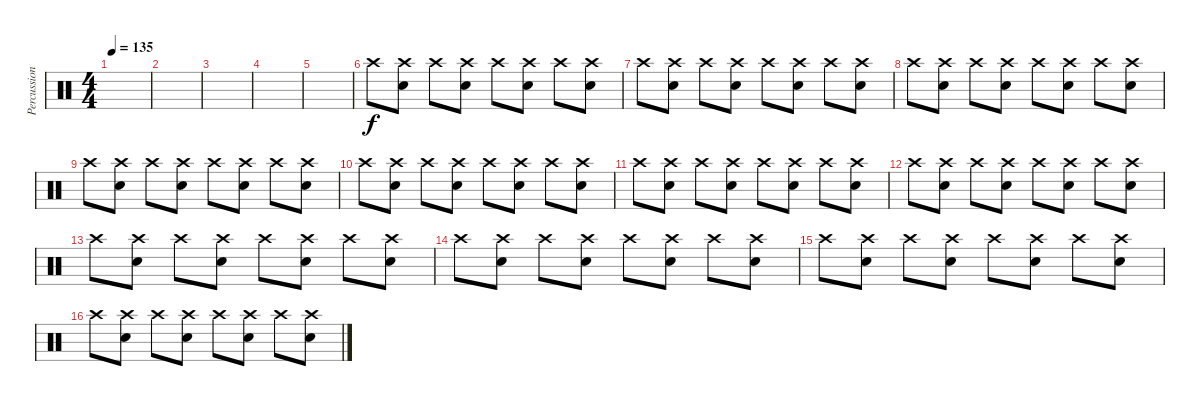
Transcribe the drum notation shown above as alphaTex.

\track ("Percussion" "Percussion") {instrument percussion}
\staff {score}
\articulation defaults
\ts (4 4)
\tempo 135
\clef neutral
\ks c
|
|
|
|
|
"Crash high (hit)".8 ("Crash high (hit)" "Electric Snare (hit)").8 "Crash high (hit)".8 ("Crash high (hit)" "Electric Snare (hit)").8 "Crash high (hit)".8 ("Crash high (hit)" "Electric Snare (hit)").8 "Crash high (hit)".8 ("Crash high (hit)" "Electric Snare (hit)").8 |
"Crash high (hit)".8 ("Crash high (hit)" "Electric Snare (hit)").8 "Crash high (hit)".8 ("Crash high (hit)" "Electric Snare (hit)").8 "Crash high (hit)".8 ("Crash high (hit)" "Electric Snare (hit)").8 "Crash high (hit)".8 ("Crash high (hit)" "Electric Snare (hit)").8 |
"Crash high (hit)".8 ("Crash high (hit)" "Electric Snare (hit)").8 "Crash high (hit)".8 ("Crash high (hit)" "Electric Snare (hit)").8 "Crash high (hit)".8 ("Crash high (hit)" "Electric Snare (hit)").8 "Crash high (hit)".8 ("Crash high (hit)" "Electric Snare (hit)").8 |
"Crash high (hit)".8 ("Crash high (hit)" "Electric Snare (hit)").8 "Crash high (hit)".8 ("Crash high (hit)" "Electric Snare (hit)").8 "Crash high (hit)".8 ("Crash high (hit)" "Electric Snare (hit)").8 "Crash high (hit)".8 ("Crash high (hit)" "Electric Snare (hit)").8 |
"Crash high (hit)".8 ("Crash high (hit)" "Electric Snare (hit)").8 "Crash high (hit)".8 ("Crash high (hit)" "Electric Snare (hit)").8 "Crash high (hit)".8 ("Crash high (hit)" "Electric Snare (hit)").8 "Crash high (hit)".8 ("Crash high (hit)" "Electric Snare (hit)").8 |
"Crash high (hit)".8 ("Crash high (hit)" "Electric Snare (hit)").8 "Crash high (hit)".8 ("Crash high (hit)" "Electric Snare (hit)").8 "Crash high (hit)".8 ("Crash high (hit)" "Electric Snare (hit)").8 "Crash high (hit)".8 ("Crash high (hit)" "Electric Snare (hit)").8 |
"Crash high (hit)".8 ("Crash high (hit)" "Electric Snare (hit)").8 "Crash high (hit)".8 ("Crash high (hit)" "Electric Snare (hit)").8 "Crash high (hit)".8 ("Crash high (hit)" "Electric Snare (hit)").8 "Crash high (hit)".8 ("Crash high (hit)" "Electric Snare (hit)").8 |
"Crash high (hit)".8 ("Crash high (hit)" "Electric Snare (hit)").8 "Crash high (hit)".8 ("Crash high (hit)" "Electric Snare (hit)").8 "Crash high (hit)".8 ("Crash high (hit)" "Electric Snare (hit)").8 "Crash high (hit)".8 ("Crash high (hit)" "Electric Snare (hit)").8 |
"Crash high (hit)".8 ("Crash high (hit)" "Electric Snare (hit)").8 "Crash high (hit)".8 ("Crash high (hit)" "Electric Snare (hit)").8 "Crash high (hit)".8 ("Crash high (hit)" "Electric Snare (hit)").8 "Crash high (hit)".8 ("Crash high (hit)" "Electric Snare (hit)").8 |
"Crash high (hit)".8 ("Crash high (hit)" "Electric Snare (hit)").8 "Crash high (hit)".8 ("Crash high (hit)" "Electric Snare (hit)").8 "Crash high (hit)".8 ("Crash high (hit)" "Electric Snare (hit)").8 "Crash high (hit)".8 ("Crash high (hit)" "Electric Snare (hit)").8 |
"Crash high (hit)".8 ("Crash high (hit)" "Electric Snare (hit)").8 "Crash high (hit)".8 ("Crash high (hit)" "Electric Snare (hit)").8 "Crash high (hit)".8 ("Crash high (hit)" "Electric Snare (hit)").8 "Crash high (hit)".8 ("Crash high (hit)" "Electric Snare (hit)").8
